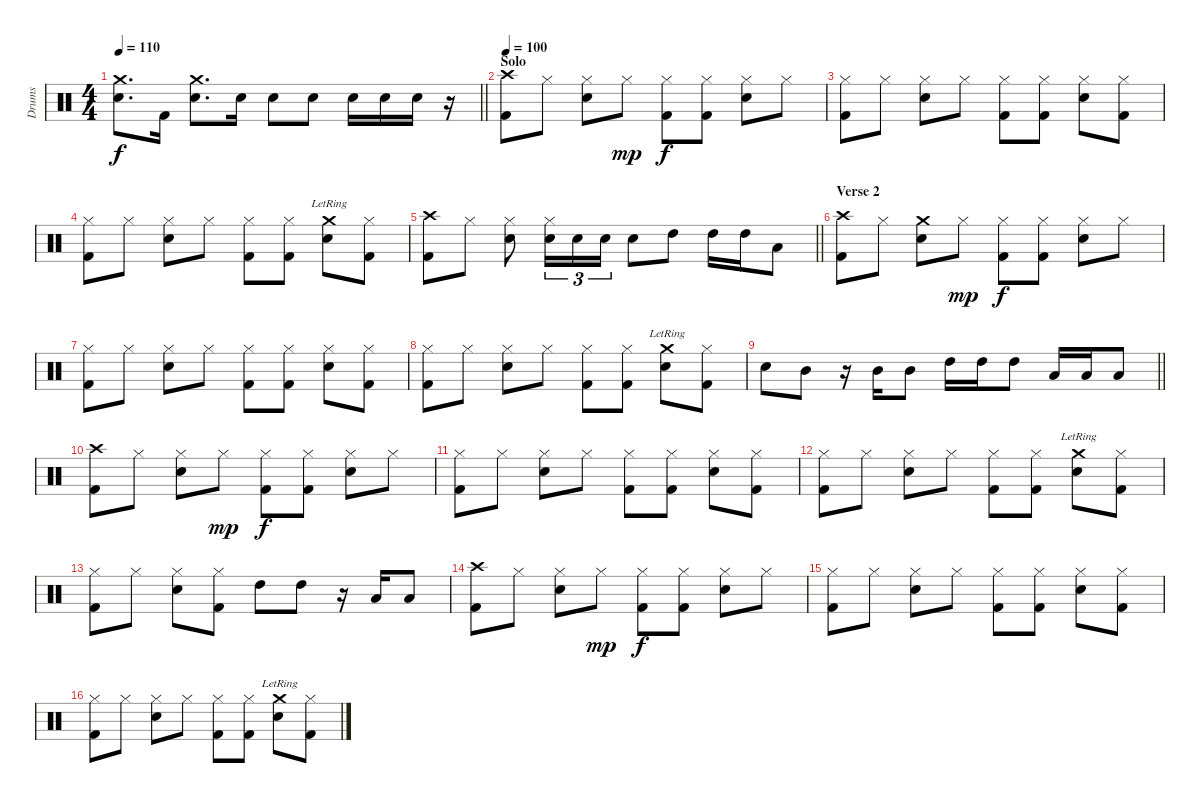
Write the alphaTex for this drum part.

\track ("Drums" "Drums") {instrument percussion}
\staff {score}
\articulation defaults
\ts (4 4)
\tempo 110
\clef neutral
\barLineRight lightlight
\ks c
("Crash medium (hit)" "Snare (hit) 2").8{d dy f} "Kick (hit) 2".16 ("Crash medium (hit)" "Snare (hit) 2").8{d} "Snare (hit) 2".16 "Snare (hit) 2".8 "Snare (hit) 2".8 "Snare (hit) 2".16 "Snare (hit) 2".16 "Snare (hit) 2".16 r.16 |
\section ("" "Solo")
\tempo 100
("Crash high (hit)" "Kick (hit) 2").8 "Hi-Hat (closed)".8 ("Hi-Hat (closed)" "Snare (hit) 2").8 "Hi-Hat (closed)".8{dy mp} ("Hi-Hat (closed)" "Kick (hit) 2").8{dy f} ("Hi-Hat (closed)" "Kick (hit) 2").8 ("Hi-Hat (closed)" "Snare (hit) 2").8 "Hi-Hat (closed)".8 |
("Hi-Hat (closed)" "Kick (hit) 2").8 "Hi-Hat (closed)".8 ("Hi-Hat (closed)" "Snare (hit) 2").8 "Hi-Hat (closed)".8 ("Hi-Hat (closed)" "Kick (hit) 2").8 ("Hi-Hat (closed)" "Kick (hit) 2").8 ("Hi-Hat (closed)" "Snare (hit) 2").8 ("Hi-Hat (closed)" "Kick (hit) 2").8 |
("Hi-Hat (closed)" "Kick (hit) 2").8 "Hi-Hat (closed)".8 ("Hi-Hat (closed)" "Snare (hit) 2").8 "Hi-Hat (closed)".8 ("Hi-Hat (closed)" "Kick (hit) 2").8 ("Hi-Hat (closed)" "Kick (hit) 2").8 ("Crash medium (hit)"{lr} "Snare (hit) 2").8 ("Hi-Hat (closed)" "Kick (hit) 2").8 |
\barLineRight lightlight
("Crash high (hit)" "Kick (hit) 2").8 "Hi-Hat (closed)".8 ("Hi-Hat (closed)" "Snare (hit) 2").8 ("Hi-Hat (closed)" "Snare (hit) 2").16{tu (3 2)} "Snare (hit) 2".16{tu (3 2)} "Snare (hit) 2".16{tu (3 2)} "Snare (hit) 2".8 "High Tom (hit)".8 "High Tom (hit)".16 "High Tom (hit)".16 "Low Tom (hit)".8 |
\section ("" "Verse 2")
("Crash high (hit)" "Kick (hit) 2").8 "Hi-Hat (closed)".8 ("Crash medium (hit)" "Snare (hit) 2").8 "Hi-Hat (closed)".8{dy mp} ("Hi-Hat (closed)" "Kick (hit) 2").8{dy f} ("Hi-Hat (closed)" "Kick (hit) 2").8 ("Hi-Hat (closed)" "Snare (hit) 2").8 "Hi-Hat (closed)".8 |
("Hi-Hat (closed)" "Kick (hit) 2").8 "Hi-Hat (closed)".8 ("Hi-Hat (closed)" "Snare (hit) 2").8 "Hi-Hat (closed)".8 ("Hi-Hat (closed)" "Kick (hit) 2").8 ("Hi-Hat (closed)" "Kick (hit) 2").8 ("Hi-Hat (closed)" "Snare (hit) 2").8 ("Hi-Hat (closed)" "Kick (hit) 2").8 |
("Hi-Hat (closed)" "Kick (hit) 2").8 "Hi-Hat (closed)".8 ("Hi-Hat (closed)" "Snare (hit) 2").8 "Hi-Hat (closed)".8 ("Hi-Hat (closed)" "Kick (hit) 2").8 ("Hi-Hat (closed)" "Kick (hit) 2").8 ("Crash medium (hit)"{lr} "Snare (hit) 2").8 ("Hi-Hat (closed)" "Kick (hit) 2").8 |
\barLineRight lightlight "Snare (hit) 2".8 "Mid Tom (hit)".8
r.16 "Mid Tom (hit)".16 "Mid Tom (hit)".8 "High Tom (hit)".16 "High Tom (hit)".16 "High Tom (hit)".8 "Low Tom (hit)".16 "Low Tom (hit)".16 "Low Tom (hit)".8 |
("Crash high (hit)" "Kick (hit) 2").8 "Hi-Hat (closed)".8 ("Hi-Hat (closed)" "Snare (hit) 2").8 "Hi-Hat (closed)".8{dy mp} ("Hi-Hat (closed)" "Kick (hit) 2").8{dy f} ("Hi-Hat (closed)" "Kick (hit) 2").8 ("Hi-Hat (closed)" "Snare (hit) 2").8 "Hi-Hat (closed)".8 |
("Hi-Hat (closed)" "Kick (hit) 2").8 "Hi-Hat (closed)".8 ("Hi-Hat (closed)" "Snare (hit) 2").8 "Hi-Hat (closed)".8 ("Hi-Hat (closed)" "Kick (hit) 2").8 ("Hi-Hat (closed)" "Kick (hit) 2").8 ("Hi-Hat (closed)" "Snare (hit) 2").8 ("Hi-Hat (closed)" "Kick (hit) 2").8 |
("Hi-Hat (closed)" "Kick (hit) 2").8 "Hi-Hat (closed)".8 ("Hi-Hat (closed)" "Snare (hit) 2").8 "Hi-Hat (closed)".8 ("Hi-Hat (closed)" "Kick (hit) 2").8 ("Hi-Hat (closed)" "Kick (hit) 2").8 ("Crash medium (hit)"{lr} "Snare (hit) 2").8 ("Hi-Hat (closed)" "Kick (hit) 2").8 |
("Hi-Hat (closed)" "Kick (hit) 2").8 "Hi-Hat (closed)".8 ("Hi-Hat (closed)" "Snare (hit) 2").8 ("Hi-Hat (closed)" "Kick (hit) 2").8 "High Tom (hit)".8 "High Tom (hit)".8 r.16 "Low Tom (hit)".16 "Low Tom (hit)".8 |
("Crash high (hit)" "Kick (hit) 2").8 "Hi-Hat (closed)".8 ("Hi-Hat (closed)" "Snare (hit) 2").8 "Hi-Hat (closed)".8{dy mp} ("Hi-Hat (closed)" "Kick (hit) 2").8{dy f} ("Hi-Hat (closed)" "Kick (hit) 2").8 ("Hi-Hat (closed)" "Snare (hit) 2").8 "Hi-Hat (closed)".8 |
("Hi-Hat (closed)" "Kick (hit) 2").8 "Hi-Hat (closed)".8 ("Hi-Hat (closed)" "Snare (hit) 2").8 "Hi-Hat (closed)".8 ("Hi-Hat (closed)" "Kick (hit) 2").8 ("Hi-Hat (closed)" "Kick (hit) 2").8 ("Hi-Hat (closed)" "Snare (hit) 2").8 ("Hi-Hat (closed)" "Kick (hit) 2").8 |
("Hi-Hat (closed)" "Kick (hit) 2").8 "Hi-Hat (closed)".8 ("Hi-Hat (closed)" "Snare (hit) 2").8 "Hi-Hat (closed)".8 ("Hi-Hat (closed)" "Kick (hit) 2").8 ("Hi-Hat (closed)" "Kick (hit) 2").8 ("Crash medium (hit)"{lr} "Snare (hit) 2").8 ("Hi-Hat (closed)" "Kick (hit) 2").8
